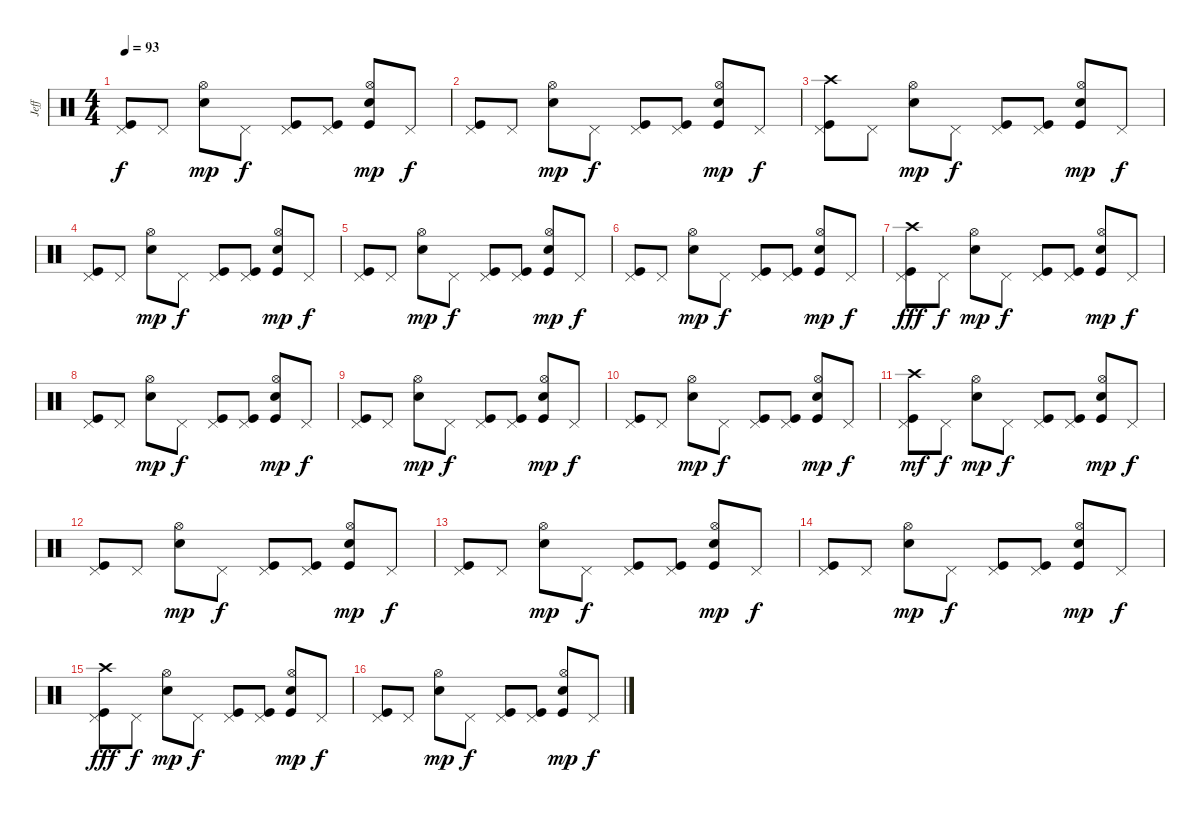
\track ("Jeff" "Jeff") {instrument percussion}
\staff {score}
\articulation defaults
\ts (4 4)
\tempo 93
\clef neutral
\ks c
("Pedal Hi-Hat (hit)" "Kick (hit)").8{dy f} "Pedal Hi-Hat (hit)".8 ("Hi-Hat (open)" "Snare (hit) 2").8{dy mp} "Pedal Hi-Hat (hit)".8{dy f} ("Pedal Hi-Hat (hit)" "Kick (hit)").8 ("Pedal Hi-Hat (hit)" "Kick (hit)").8 ("Hi-Hat (open)" "Snare (hit) 2" "Kick (hit)").8{dy mp} "Pedal Hi-Hat (hit)".8{dy f} |
("Pedal Hi-Hat (hit)" "Kick (hit)").8 "Pedal Hi-Hat (hit)".8 ("Hi-Hat (open)" "Snare (hit) 2").8{dy mp} "Pedal Hi-Hat (hit)".8{dy f} ("Pedal Hi-Hat (hit)" "Kick (hit)").8 ("Pedal Hi-Hat (hit)" "Kick (hit)").8 ("Hi-Hat (open)" "Snare (hit) 2" "Kick (hit)").8{dy mp} "Pedal Hi-Hat (hit)".8{dy f} |
("Pedal Hi-Hat (hit)" "Crash high (hit)" "Kick (hit)").8 "Pedal Hi-Hat (hit)".8 ("Hi-Hat (open)" "Snare (hit) 2").8{dy mp} "Pedal Hi-Hat (hit)".8{dy f} ("Pedal Hi-Hat (hit)" "Kick (hit)").8 ("Pedal Hi-Hat (hit)" "Kick (hit)").8 ("Hi-Hat (open)" "Snare (hit) 2" "Kick (hit)").8{dy mp} "Pedal Hi-Hat (hit)".8{dy f} |
("Pedal Hi-Hat (hit)" "Kick (hit)").8 "Pedal Hi-Hat (hit)".8 ("Hi-Hat (open)" "Snare (hit) 2").8{dy mp} "Pedal Hi-Hat (hit)".8{dy f} ("Pedal Hi-Hat (hit)" "Kick (hit)").8 ("Pedal Hi-Hat (hit)" "Kick (hit)").8 ("Hi-Hat (open)" "Snare (hit) 2" "Kick (hit)").8{dy mp} "Pedal Hi-Hat (hit)".8{dy f} |
("Pedal Hi-Hat (hit)" "Kick (hit)").8 "Pedal Hi-Hat (hit)".8 ("Hi-Hat (open)" "Snare (hit) 2").8{dy mp} "Pedal Hi-Hat (hit)".8{dy f} ("Pedal Hi-Hat (hit)" "Kick (hit)").8 ("Pedal Hi-Hat (hit)" "Kick (hit)").8 ("Hi-Hat (open)" "Snare (hit) 2" "Kick (hit)").8{dy mp} "Pedal Hi-Hat (hit)".8{dy f} |
("Pedal Hi-Hat (hit)" "Kick (hit)").8 "Pedal Hi-Hat (hit)".8 ("Hi-Hat (open)" "Snare (hit) 2").8{dy mp} "Pedal Hi-Hat (hit)".8{dy f} ("Pedal Hi-Hat (hit)" "Kick (hit)").8 ("Pedal Hi-Hat (hit)" "Kick (hit)").8 ("Hi-Hat (open)" "Snare (hit) 2" "Kick (hit)").8{dy mp} "Pedal Hi-Hat (hit)".8{dy f} |
("Pedal Hi-Hat (hit)" "Crash high (hit)" "Kick (hit)").8{dy fff} "Pedal Hi-Hat (hit)".8{dy f} ("Hi-Hat (open)" "Snare (hit) 2").8{dy mp} "Pedal Hi-Hat (hit)".8{dy f} ("Pedal Hi-Hat (hit)" "Kick (hit)").8 ("Pedal Hi-Hat (hit)" "Kick (hit)").8 ("Hi-Hat (open)" "Snare (hit) 2" "Kick (hit)").8{dy mp} "Pedal Hi-Hat (hit)".8{dy f} |
("Pedal Hi-Hat (hit)" "Kick (hit)").8 "Pedal Hi-Hat (hit)".8 ("Hi-Hat (open)" "Snare (hit) 2").8{dy mp} "Pedal Hi-Hat (hit)".8{dy f} ("Pedal Hi-Hat (hit)" "Kick (hit)").8 ("Pedal Hi-Hat (hit)" "Kick (hit)").8 ("Hi-Hat (open)" "Snare (hit) 2" "Kick (hit)").8{dy mp} "Pedal Hi-Hat (hit)".8{dy f} |
("Pedal Hi-Hat (hit)" "Kick (hit)").8 "Pedal Hi-Hat (hit)".8 ("Hi-Hat (open)" "Snare (hit) 2").8{dy mp} "Pedal Hi-Hat (hit)".8{dy f} ("Pedal Hi-Hat (hit)" "Kick (hit)").8 ("Pedal Hi-Hat (hit)" "Kick (hit)").8 ("Hi-Hat (open)" "Snare (hit) 2" "Kick (hit)").8{dy mp} "Pedal Hi-Hat (hit)".8{dy f} |
("Pedal Hi-Hat (hit)" "Kick (hit)").8 "Pedal Hi-Hat (hit)".8 ("Hi-Hat (open)" "Snare (hit) 2").8{dy mp} "Pedal Hi-Hat (hit)".8{dy f} ("Pedal Hi-Hat (hit)" "Kick (hit)").8 ("Pedal Hi-Hat (hit)" "Kick (hit)").8 ("Hi-Hat (open)" "Snare (hit) 2" "Kick (hit)").8{dy mp} "Pedal Hi-Hat (hit)".8{dy f} |
("Pedal Hi-Hat (hit)" "Crash high (hit)" "Kick (hit)").8{dy mf} "Pedal Hi-Hat (hit)".8{dy f} ("Hi-Hat (open)" "Snare (hit) 2").8{dy mp} "Pedal Hi-Hat (hit)".8{dy f} ("Pedal Hi-Hat (hit)" "Kick (hit)").8 ("Pedal Hi-Hat (hit)" "Kick (hit)").8 ("Hi-Hat (open)" "Snare (hit) 2" "Kick (hit)").8{dy mp} "Pedal Hi-Hat (hit)".8{dy f} |
("Pedal Hi-Hat (hit)" "Kick (hit)").8 "Pedal Hi-Hat (hit)".8 ("Hi-Hat (open)" "Snare (hit) 2").8{dy mp} "Pedal Hi-Hat (hit)".8{dy f} ("Pedal Hi-Hat (hit)" "Kick (hit)").8 ("Pedal Hi-Hat (hit)" "Kick (hit)").8 ("Hi-Hat (open)" "Snare (hit) 2" "Kick (hit)").8{dy mp} "Pedal Hi-Hat (hit)".8{dy f} |
("Pedal Hi-Hat (hit)" "Kick (hit)").8 "Pedal Hi-Hat (hit)".8 ("Hi-Hat (open)" "Snare (hit) 2").8{dy mp} "Pedal Hi-Hat (hit)".8{dy f} ("Pedal Hi-Hat (hit)" "Kick (hit)").8 ("Pedal Hi-Hat (hit)" "Kick (hit)").8 ("Hi-Hat (open)" "Snare (hit) 2" "Kick (hit)").8{dy mp} "Pedal Hi-Hat (hit)".8{dy f} |
("Pedal Hi-Hat (hit)" "Kick (hit)").8 "Pedal Hi-Hat (hit)".8 ("Hi-Hat (open)" "Snare (hit) 2").8{dy mp} "Pedal Hi-Hat (hit)".8{dy f} ("Pedal Hi-Hat (hit)" "Kick (hit)").8 ("Pedal Hi-Hat (hit)" "Kick (hit)").8 ("Hi-Hat (open)" "Snare (hit) 2" "Kick (hit)").8{dy mp} "Pedal Hi-Hat (hit)".8{dy f} |
("Pedal Hi-Hat (hit)" "Crash high (hit)" "Kick (hit)").8{dy fff} "Pedal Hi-Hat (hit)".8{dy f} ("Hi-Hat (open)" "Snare (hit) 2").8{dy mp} "Pedal Hi-Hat (hit)".8{dy f} ("Pedal Hi-Hat (hit)" "Kick (hit)").8 ("Pedal Hi-Hat (hit)" "Kick (hit)").8 ("Hi-Hat (open)" "Snare (hit) 2" "Kick (hit)").8{dy mp} "Pedal Hi-Hat (hit)".8{dy f} |
("Pedal Hi-Hat (hit)" "Kick (hit)").8 "Pedal Hi-Hat (hit)".8 ("Hi-Hat (open)" "Snare (hit) 2").8{dy mp} "Pedal Hi-Hat (hit)".8{dy f} ("Pedal Hi-Hat (hit)" "Kick (hit)").8 ("Pedal Hi-Hat (hit)" "Kick (hit)").8 ("Hi-Hat (open)" "Snare (hit) 2" "Kick (hit)").8{dy mp} "Pedal Hi-Hat (hit)".8{dy f}
